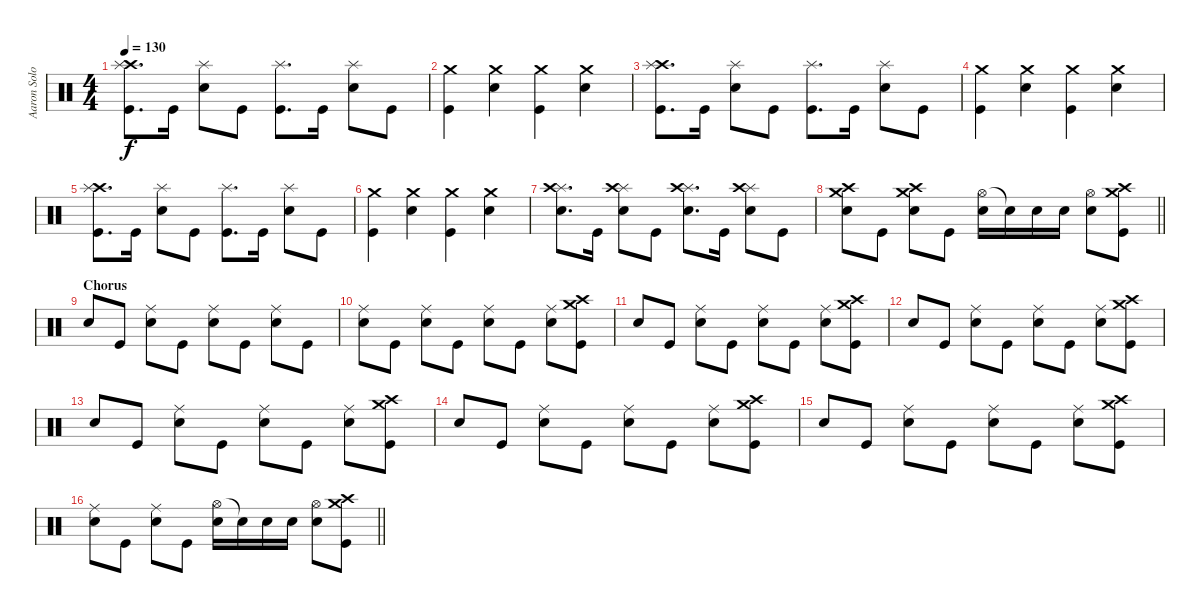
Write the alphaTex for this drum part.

\track ("Aaron Solowoniuk" "Aaron Solo") {instrument percussion}
\staff {score}
\articulation defaults
\ts (4 4)
\section ("" "")
\tempo 130
\clef neutral
\ks c
("Crash high (hit)" "Splash (hit)" "Kick (hit)").8{d dy f} "Kick (hit)".16 ("Splash (hit)" "Electric Snare (hit)").8 "Kick (hit)".8 ("Splash (hit)" "Kick (hit)").8{d} "Kick (hit)".16 ("Splash (hit)" "Electric Snare (hit)").8 "Kick (hit)".8 |
("Crash medium (hit)" "Kick (hit)").4 ("Crash medium (hit)" "Electric Snare (hit)").4 ("Crash medium (hit)" "Kick (hit)").4 ("Crash medium (hit)" "Electric Snare (hit)").4 |
("Crash high (hit)" "Splash (hit)" "Kick (hit)").8{d} "Kick (hit)".16 ("Splash (hit)" "Electric Snare (hit)").8 "Kick (hit)".8 ("Splash (hit)" "Kick (hit)").8{d} "Kick (hit)".16 ("Splash (hit)" "Electric Snare (hit)").8 "Kick (hit)".8 |
("Crash medium (hit)" "Kick (hit)").4 ("Crash medium (hit)" "Electric Snare (hit)").4 ("Crash medium (hit)" "Kick (hit)").4 ("Crash medium (hit)" "Electric Snare (hit)").4 |
("Crash high (hit)" "Splash (hit)" "Kick (hit)").8{d} "Kick (hit)".16 ("Splash (hit)" "Electric Snare (hit)").8 "Kick (hit)".8 ("Splash (hit)" "Kick (hit)").8{d} "Kick (hit)".16 ("Splash (hit)" "Electric Snare (hit)").8 "Kick (hit)".8 |
("Crash medium (hit)" "Kick (hit)").4 ("Crash medium (hit)" "Electric Snare (hit)").4 ("Crash medium (hit)" "Kick (hit)").4 ("Crash medium (hit)" "Electric Snare (hit)").4 |
("Splash (hit)" "Crash high (hit)" "Electric Snare (hit)").8{d} "Kick (hit)".16 ("Splash (hit)" "Crash high (hit)" "Electric Snare (hit)").8 "Kick (hit)".8 ("Splash (hit)" "Crash high (hit)" "Electric Snare (hit)").8{d} "Kick (hit)".16 ("Splash (hit)" "Crash high (hit)" "Electric Snare (hit)").8 "Kick (hit)".8 |
\barLineRight lightlight
("Crash medium (hit)" "Crash high (hit)" "Electric Snare (hit)").8 "Kick (hit)".8 ("Crash medium (hit)" "Crash high (hit)" "Electric Snare (hit)").8 "Kick (hit)".8 ("Hi-Hat (open)" "Electric Snare (hit)").16 "Electric Snare (hit)"{t}.16 "Electric Snare (hit)".16 "Electric Snare (hit)".16 ("Hi-Hat (open)" "Electric Snare (hit)").8 ("Crash medium (hit)" "Crash high (hit)" "Kick (hit)").8 |
\section ("" "Chorus")
"Electric Snare (hit)".8 "Kick (hit)".8 ("Ride (middle)" "Electric Snare (hit)").8 "Kick (hit)".8 ("Ride (middle)" "Electric Snare (hit)").8 "Kick (hit)".8 ("Ride (middle)" "Electric Snare (hit)").8 "Kick (hit)".8 |
("Ride (middle)" "Electric Snare (hit)").8 "Kick (hit)".8 ("Ride (middle)" "Electric Snare (hit)").8 "Kick (hit)".8 ("Ride (middle)" "Electric Snare (hit)").8 "Kick (hit)".8 ("Ride (middle)" "Electric Snare (hit)").8 ("Crash medium (hit)" "Crash high (hit)" "Kick (hit)").8 |
"Electric Snare (hit)".8 "Kick (hit)".8 ("Ride (middle)" "Electric Snare (hit)").8 "Kick (hit)".8 ("Ride (middle)" "Electric Snare (hit)").8 "Kick (hit)".8 ("Ride (middle)" "Electric Snare (hit)").8 ("Crash medium (hit)" "Crash high (hit)" "Kick (hit)").8 |
"Electric Snare (hit)".8 "Kick (hit)".8 ("Ride (middle)" "Electric Snare (hit)").8 "Kick (hit)".8 ("Ride (middle)" "Electric Snare (hit)").8 "Kick (hit)".8 ("Ride (middle)" "Electric Snare (hit)").8 ("Crash medium (hit)" "Crash high (hit)" "Kick (hit)").8 |
"Electric Snare (hit)".8 "Kick (hit)".8 ("Ride (middle)" "Electric Snare (hit)").8 "Kick (hit)".8 ("Ride (middle)" "Electric Snare (hit)").8 "Kick (hit)".8 ("Ride (middle)" "Electric Snare (hit)").8 ("Crash medium (hit)" "Crash high (hit)" "Kick (hit)").8 |
"Electric Snare (hit)".8 "Kick (hit)".8 ("Ride (middle)" "Electric Snare (hit)").8 "Kick (hit)".8 ("Ride (middle)" "Electric Snare (hit)").8 "Kick (hit)".8 ("Ride (middle)" "Electric Snare (hit)").8 ("Crash medium (hit)" "Crash high (hit)" "Kick (hit)").8 |
"Electric Snare (hit)".8 "Kick (hit)".8 ("Ride (middle)" "Electric Snare (hit)").8 "Kick (hit)".8 ("Ride (middle)" "Electric Snare (hit)").8 "Kick (hit)".8 ("Ride (middle)" "Electric Snare (hit)").8 ("Crash medium (hit)" "Crash high (hit)" "Kick (hit)").8 |
\barLineRight lightlight
("Ride (middle)" "Electric Snare (hit)").8 "Kick (hit)".8 ("Ride (middle)" "Electric Snare (hit)").8 "Kick (hit)".8 ("Hi-Hat (open)" "Electric Snare (hit)").16 "Electric Snare (hit)"{t}.16 "Electric Snare (hit)".16 "Electric Snare (hit)".16 ("Hi-Hat (open)" "Electric Snare (hit)").8 ("Crash medium (hit)" "Crash high (hit)" "Kick (hit)").8
